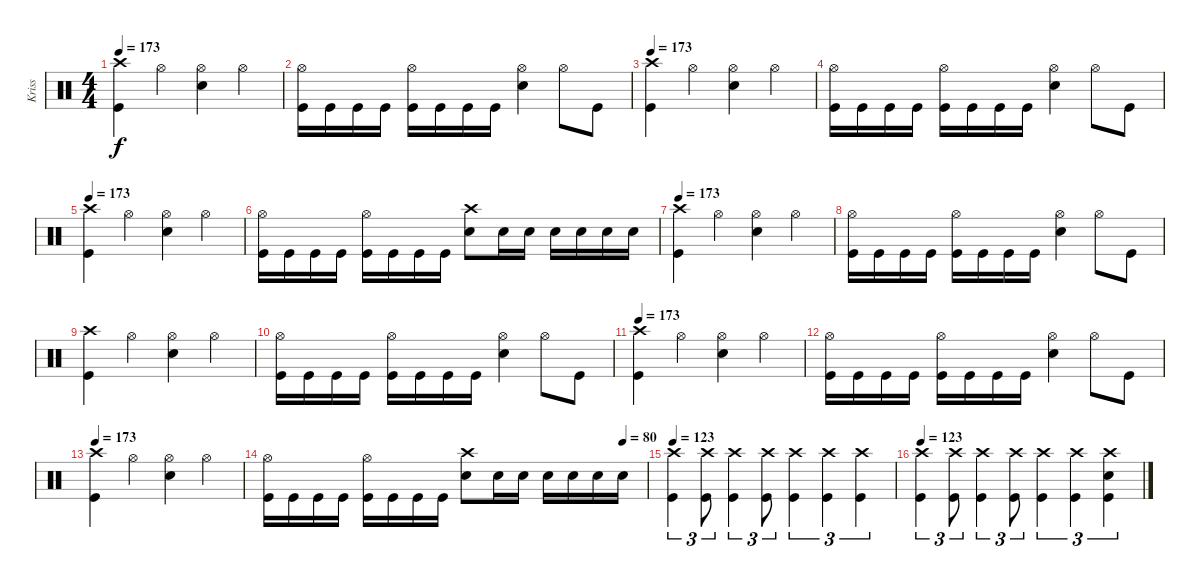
\track ("Kriss" "Kriss") {instrument percussion}
\staff {score}
\articulation defaults
\ts (4 4)
\tempo 173
\clef neutral
\ks c
("Crash high (hit)" "Kick (hit)").4{dy f} "Hi-Hat (open)".4 ("Hi-Hat (open)" "Snare (hit) 2").4 "Hi-Hat (open)".4 |
("Hi-Hat (open)" "Kick (hit)").16 "Kick (hit)".16 "Kick (hit)".16 "Kick (hit)".16 ("Hi-Hat (open)" "Kick (hit)").16 "Kick (hit)".16 "Kick (hit)".16 "Kick (hit)".16 ("Hi-Hat (open)" "Snare (hit) 2").4 "Hi-Hat (open)".8 "Kick (hit)".8 |
\tempo 173
("Crash high (hit)" "Kick (hit)").4 "Hi-Hat (open)".4 ("Hi-Hat (open)" "Snare (hit) 2").4 "Hi-Hat (open)".4 |
("Hi-Hat (open)" "Kick (hit)").16 "Kick (hit)".16 "Kick (hit)".16 "Kick (hit)".16 ("Hi-Hat (open)" "Kick (hit)").16 "Kick (hit)".16 "Kick (hit)".16 "Kick (hit)".16 ("Hi-Hat (open)" "Snare (hit) 2").4 "Hi-Hat (open)".8 "Kick (hit)".8 |
\tempo 173
("Crash high (hit)" "Kick (hit)").4 "Hi-Hat (open)".4 ("Hi-Hat (open)" "Snare (hit) 2").4 "Hi-Hat (open)".4 |
("Hi-Hat (open)" "Kick (hit)").16 "Kick (hit)".16 "Kick (hit)".16 "Kick (hit)".16 ("Hi-Hat (open)" "Kick (hit)").16 "Kick (hit)".16 "Kick (hit)".16 "Kick (hit)".16 ("Crash high (hit)" "Snare (hit) 2").8 "Snare (hit) 2".16 "Snare (hit) 2".16 "Snare (hit) 2".16 "Snare (hit) 2".16 "Snare (hit) 2".16 "Snare (hit) 2".16 |
\tempo 173
("Crash high (hit)" "Kick (hit)").4 "Hi-Hat (open)".4 ("Hi-Hat (open)" "Snare (hit) 2").4 "Hi-Hat (open)".4 |
("Hi-Hat (open)" "Kick (hit)").16 "Kick (hit)".16 "Kick (hit)".16 "Kick (hit)".16 ("Hi-Hat (open)" "Kick (hit)").16 "Kick (hit)".16 "Kick (hit)".16 "Kick (hit)".16 ("Hi-Hat (open)" "Snare (hit) 2").4 "Hi-Hat (open)".8 "Kick (hit)".8 |
("Crash high (hit)" "Kick (hit)").4 "Hi-Hat (open)".4 ("Hi-Hat (open)" "Snare (hit) 2").4 "Hi-Hat (open)".4 |
("Hi-Hat (open)" "Kick (hit)").16 "Kick (hit)".16 "Kick (hit)".16 "Kick (hit)".16 ("Hi-Hat (open)" "Kick (hit)").16 "Kick (hit)".16 "Kick (hit)".16 "Kick (hit)".16 ("Hi-Hat (open)" "Snare (hit) 2").4 "Hi-Hat (open)".8 "Kick (hit)".8 |
\tempo 173
("Crash high (hit)" "Kick (hit)").4 "Hi-Hat (open)".4 ("Hi-Hat (open)" "Snare (hit) 2").4 "Hi-Hat (open)".4 |
("Hi-Hat (open)" "Kick (hit)").16 "Kick (hit)".16 "Kick (hit)".16 "Kick (hit)".16 ("Hi-Hat (open)" "Kick (hit)").16 "Kick (hit)".16 "Kick (hit)".16 "Kick (hit)".16 ("Hi-Hat (open)" "Snare (hit) 2").4 "Hi-Hat (open)".8 "Kick (hit)".8 |
\tempo 173
("Crash high (hit)" "Kick (hit)").4 "Hi-Hat (open)".4 ("Hi-Hat (open)" "Snare (hit) 2").4 "Hi-Hat (open)".4 |
\tempo (80 0.9375)
("Hi-Hat (open)" "Kick (hit)").16 "Kick (hit)".16 "Kick (hit)".16 "Kick (hit)".16 ("Hi-Hat (open)" "Kick (hit)").16 "Kick (hit)".16 "Kick (hit)".16 "Kick (hit)".16 ("Crash high (hit)" "Snare (hit) 2").8 "Snare (hit) 2".16 "Snare (hit) 2".16 "Snare (hit) 2".16 "Snare (hit) 2".16 "Snare (hit) 2".16 "Snare (hit) 2".16 |
\tempo 123
("Crash high (hit)" "Kick (hit)").4{tu (3 2)} ("Crash high (hit)" "Kick (hit)").8{tu (3 2)} ("Crash high (hit)" "Kick (hit)").4{tu (3 2)} ("Crash high (hit)" "Kick (hit)").8{tu (3 2)} ("Crash high (hit)" "Kick (hit)").4{tu (3 2)} ("Crash high (hit)" "Kick (hit)").4{tu (3 2)} ("Crash high (hit)" "Kick (hit)").4{tu (3 2)} |
\tempo 123
("Crash high (hit)" "Kick (hit)").4{tu (3 2)} ("Crash high (hit)" "Kick (hit)").8{tu (3 2)} ("Crash high (hit)" "Kick (hit)").4{tu (3 2)} ("Crash high (hit)" "Kick (hit)").8{tu (3 2)} ("Crash high (hit)" "Kick (hit)").4{tu (3 2)} ("Crash high (hit)" "Kick (hit)").4{tu (3 2)} ("Crash high (hit)" "Snare (hit) 2" "Kick (hit)").4{tu (3 2)}
